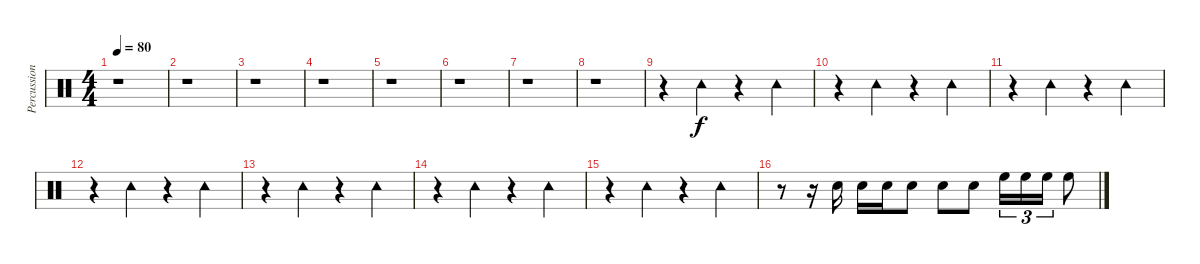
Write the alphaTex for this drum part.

\track ("Percussion" "Percussion") {instrument percussion}
\staff {score}
\articulation defaults
\ts (4 4)
\tempo 80
\clef neutral
\ks c
r.1{dy f} |
r.1 |
r.1 |
r.1 |
r.1 |
r.1 |
r.1 |
r.1 |
r.4 "Tambourine (hit)".4 r.4 "Tambourine (hit)".4 |
r.4 "Tambourine (hit)".4 r.4 "Tambourine (hit)".4 |
r.4 "Tambourine (hit)".4 r.4 "Tambourine (hit)".4 |
r.4 "Tambourine (hit)".4 r.4 "Tambourine (hit)".4 |
r.4 "Tambourine (hit)".4 r.4 "Tambourine (hit)".4 |
r.4 "Tambourine (hit)".4 r.4 "Tambourine (hit)".4 |
r.4 "Tambourine (hit)".4 r.4 "Tambourine (hit)".4 |
r.8 r.16 "Snare (hit) 2".16 "Snare (hit) 2".16 "Snare (hit) 2".16 "Snare (hit) 2".8 "Snare (hit) 2".8 "Snare (hit) 2".8 "High Floor Tom (hit)".16{tu (3 2)} "High Floor Tom (hit)".16{tu (3 2)} "High Floor Tom (hit)".16{tu (3 2)} "High Floor Tom (hit)".8
